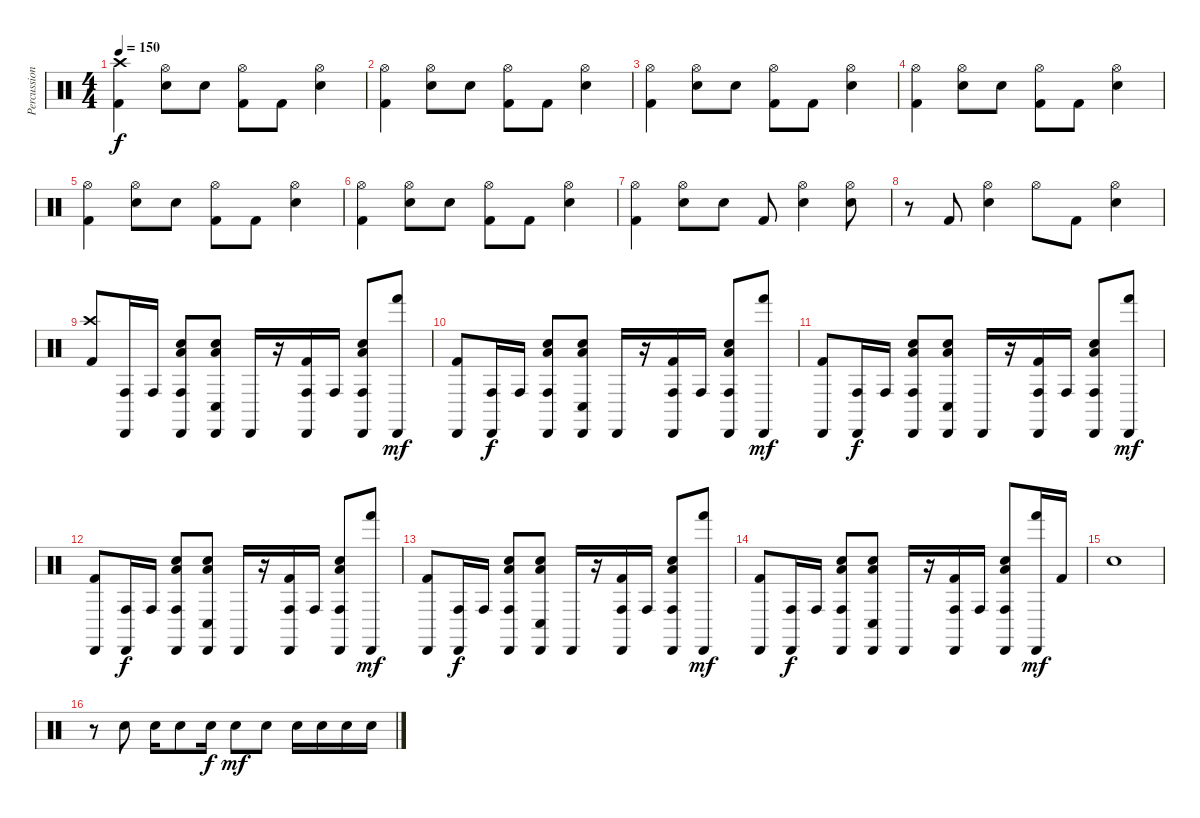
\track ("Percussion" "Percussion") {instrument percussion}
\staff {score}
\articulation defaults
\ts (4 4)
\tempo 150
\clef neutral
\ks c
("Crash high (hit)" "Kick (hit) 2").4{dy f} ("Hi-Hat (open)" "Snare (hit) 2").8 "Snare (hit) 2".8 ("Hi-Hat (open)" "Kick (hit) 2").8 "Kick (hit) 2".8 ("Hi-Hat (open)" "Snare (hit) 2").4 |
("Hi-Hat (open)" "Kick (hit) 2").4 ("Hi-Hat (open)" "Snare (hit) 2").8 "Snare (hit) 2".8 ("Hi-Hat (open)" "Kick (hit) 2").8 "Kick (hit) 2".8 ("Hi-Hat (open)" "Snare (hit) 2").4 |
("Hi-Hat (open)" "Kick (hit) 2").4 ("Hi-Hat (open)" "Snare (hit) 2").8 "Snare (hit) 2".8 ("Hi-Hat (open)" "Kick (hit) 2").8 "Kick (hit) 2".8 ("Hi-Hat (open)" "Snare (hit) 2").4 |
("Hi-Hat (open)" "Kick (hit) 2").4 ("Hi-Hat (open)" "Snare (hit) 2").8 "Snare (hit) 2".8 ("Hi-Hat (open)" "Kick (hit) 2").8 "Kick (hit) 2".8 ("Hi-Hat (open)" "Snare (hit) 2").4 |
("Hi-Hat (open)" "Kick (hit) 2").4 ("Hi-Hat (open)" "Snare (hit) 2").8 "Snare (hit) 2".8 ("Hi-Hat (open)" "Kick (hit) 2").8 "Kick (hit) 2".8 ("Hi-Hat (open)" "Snare (hit) 2").4 |
("Hi-Hat (open)" "Kick (hit) 2").4 ("Hi-Hat (open)" "Snare (hit) 2").8 "Snare (hit) 2".8 ("Hi-Hat (open)" "Kick (hit) 2").8 "Kick (hit) 2".8 ("Hi-Hat (open)" "Snare (hit) 2").4 |
("Hi-Hat (open)" "Kick (hit) 2").4 ("Hi-Hat (open)" "Snare (hit) 2").8 "Snare (hit) 2".8 "Kick (hit) 2".8 ("Hi-Hat (open)" "Snare (hit) 2").4 ("Hi-Hat (open)" "Snare (hit) 2").8 |
r.8 "Kick (hit) 2".8 ("Hi-Hat (open)" "Snare (hit) 2").4 "Hi-Hat (open)".8 "Kick (hit) 2".8 ("Hi-Hat (open)" "Snare (hit) 2").4 |
("Crash high (hit)" "Kick (hit) 2").8{volume 8} ("Cabasa (hit)" "Conga high (hit)").16 "Conga high (hit)".16 ("Cabasa (hit)" "Conga high (hit)" "Snare (hit) 2" "Low Tom (hit)").8 ("Cabasa (hit)" "Conga low (hit)" "Snare (hit) 2" "Low Tom (hit)").8 "Cabasa (hit)".16 r.16 ("Cabasa (hit)" "Conga high (hit)" "Kick (hit) 2").16 "Conga high (hit)".16 ("Cabasa (hit)" "Conga high (hit)" "Snare (hit) 2" "Low Tom (hit)").8 ("Cabasa (hit)" "Hand (hit)").8{dy mf} |
("Cabasa (hit)" "Kick (hit) 2").8 ("Cabasa (hit)" "Conga high (hit)").16{dy f} "Conga high (hit)".16 ("Cabasa (hit)" "Conga high (hit)" "Snare (hit) 2" "Low Tom (hit)").8 ("Cabasa (hit)" "Conga low (hit)" "Snare (hit) 2" "Low Tom (hit)").8 "Cabasa (hit)".16 r.16 ("Cabasa (hit)" "Conga high (hit)" "Kick (hit) 2").16 "Conga high (hit)".16 ("Cabasa (hit)" "Conga high (hit)" "Snare (hit) 2" "Low Tom (hit)").8 ("Cabasa (hit)" "Hand (hit)").8{dy mf} |
("Cabasa (hit)" "Kick (hit) 2").8 ("Cabasa (hit)" "Conga high (hit)").16{dy f} "Conga high (hit)".16 ("Cabasa (hit)" "Conga high (hit)" "Snare (hit) 2" "Low Tom (hit)").8 ("Cabasa (hit)" "Conga low (hit)" "Snare (hit) 2" "Low Tom (hit)").8 "Cabasa (hit)".16 r.16 ("Cabasa (hit)" "Conga high (hit)" "Kick (hit) 2").16 "Conga high (hit)".16 ("Cabasa (hit)" "Conga high (hit)" "Snare (hit) 2" "Low Tom (hit)").8 ("Cabasa (hit)" "Hand (hit)").8{dy mf} |
("Cabasa (hit)" "Kick (hit) 2").8 ("Cabasa (hit)" "Conga high (hit)").16{dy f} "Conga high (hit)".16 ("Cabasa (hit)" "Conga high (hit)" "Snare (hit) 2" "Low Tom (hit)").8 ("Cabasa (hit)" "Conga low (hit)" "Snare (hit) 2" "Low Tom (hit)").8 "Cabasa (hit)".16 r.16 ("Cabasa (hit)" "Conga high (hit)" "Kick (hit) 2").16 "Conga high (hit)".16 ("Cabasa (hit)" "Conga high (hit)" "Snare (hit) 2" "Low Tom (hit)").8 ("Cabasa (hit)" "Hand (hit)").8{dy mf} |
("Cabasa (hit)" "Kick (hit) 2").8 ("Cabasa (hit)" "Conga high (hit)").16{dy f} "Conga high (hit)".16 ("Cabasa (hit)" "Conga high (hit)" "Snare (hit) 2" "Low Tom (hit)").8 ("Cabasa (hit)" "Conga low (hit)" "Snare (hit) 2" "Low Tom (hit)").8 "Cabasa (hit)".16 r.16 ("Cabasa (hit)" "Conga high (hit)" "Kick (hit) 2").16 "Conga high (hit)".16 ("Cabasa (hit)" "Conga high (hit)" "Snare (hit) 2" "Low Tom (hit)").8 ("Cabasa (hit)" "Hand (hit)").8{dy mf} |
("Cabasa (hit)" "Kick (hit) 2").8 ("Cabasa (hit)" "Conga high (hit)").16{dy f} "Conga high (hit)".16 ("Cabasa (hit)" "Conga high (hit)" "Snare (hit) 2" "Low Tom (hit)").8 ("Cabasa (hit)" "Conga low (hit)" "Snare (hit) 2" "Low Tom (hit)").8 "Cabasa (hit)".16 r.16 ("Cabasa (hit)" "Conga high (hit)" "Kick (hit) 2").16 "Conga high (hit)".16 ("Cabasa (hit)" "Conga high (hit)" "Snare (hit) 2" "Low Tom (hit)").8 ("Cabasa (hit)" "Hand (hit)").16{dy mf} "Kick (hit) 2".16 |
"Snare (hit) 2".1{volume 16} |
r.8 "Snare (hit) 2".8 "Snare (hit) 2".16 "Snare (hit) 2".8 "Snare (hit) 2".16{dy f} "Snare (hit) 2".8{dy mf} "Snare (hit) 2".8 "Snare (hit) 2".16 "Snare (hit) 2".16 "Snare (hit) 2".16 "Snare (hit) 2".16
